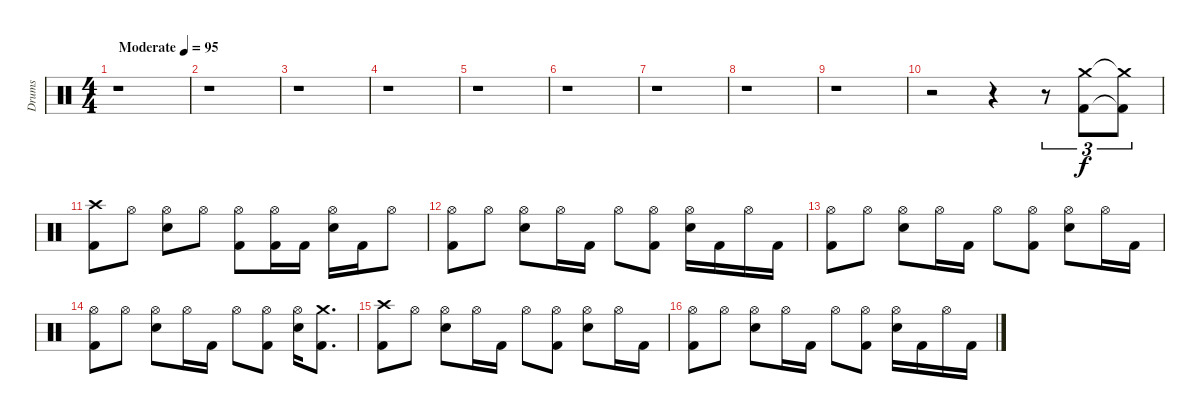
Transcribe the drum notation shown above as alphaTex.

\track ("Drums" "Drums") {instrument percussion}
\staff {score}
\articulation defaults
\ts (4 4)
\tempo (95 "Moderate")
\clef neutral
\ks c
r.1{dy f} |
r.1 |
r.1 |
r.1 |
r.1 |
r.1 |
r.1 |
r.1 |
r.1 |
r.2 r.4 r.8{tu (3 2)} ("Crash medium (hit)" "Kick (hit) 2").8{tu (3 2)} ("Crash medium (hit)"{t} "Kick (hit) 2"{t}).8{tu (3 2)} |
("Crash high (hit)" "Kick (hit) 2").8 "Hi-Hat (open)".8 ("Hi-Hat (open)" "Snare (hit) 2").8 "Hi-Hat (open)".8 ("Hi-Hat (open)" "Kick (hit) 2").8 ("Hi-Hat (open)" "Kick (hit) 2").16 "Kick (hit) 2".16 ("Hi-Hat (open)" "Snare (hit) 2").16 "Kick (hit) 2".16 "Hi-Hat (open)".8 |
("Hi-Hat (open)" "Kick (hit) 2").8 "Hi-Hat (open)".8 ("Hi-Hat (open)" "Snare (hit) 2").8 "Hi-Hat (open)".16 "Kick (hit) 2".16 "Hi-Hat (open)".8 ("Hi-Hat (open)" "Kick (hit) 2").8 ("Hi-Hat (open)" "Snare (hit) 2").16 "Kick (hit) 2".16 "Hi-Hat (open)".16 "Kick (hit) 2".16 |
("Hi-Hat (open)" "Kick (hit) 2").8 "Hi-Hat (open)".8 ("Hi-Hat (open)" "Snare (hit) 2").8 "Hi-Hat (open)".16 "Kick (hit) 2".16 "Hi-Hat (open)".8 ("Hi-Hat (open)" "Kick (hit) 2").8 ("Hi-Hat (open)" "Snare (hit) 2").8 "Hi-Hat (open)".16 "Kick (hit) 2".16 |
("Hi-Hat (open)" "Kick (hit) 2").8 "Hi-Hat (open)".8 ("Hi-Hat (open)" "Snare (hit) 2").8 "Hi-Hat (open)".16 "Kick (hit) 2".16 "Hi-Hat (open)".8 ("Hi-Hat (open)" "Kick (hit) 2").8 ("Hi-Hat (open)" "Snare (hit) 2").16 ("Crash medium (hit)" "Kick (hit) 2").8{d} |
("Crash high (hit)" "Kick (hit) 2").8 "Hi-Hat (open)".8 ("Hi-Hat (open)" "Snare (hit) 2").8 "Hi-Hat (open)".16 "Kick (hit) 2".16 "Hi-Hat (open)".8 ("Hi-Hat (open)" "Kick (hit) 2").8 ("Hi-Hat (open)" "Snare (hit) 2").8 "Hi-Hat (open)".16 "Kick (hit) 2".16 |
("Hi-Hat (open)" "Kick (hit) 2").8 "Hi-Hat (open)".8 ("Hi-Hat (open)" "Snare (hit) 2").8 "Hi-Hat (open)".16 "Kick (hit) 2".16 "Hi-Hat (open)".8 ("Hi-Hat (open)" "Kick (hit) 2").8 ("Hi-Hat (open)" "Snare (hit) 2").16 "Kick (hit) 2".16 "Hi-Hat (open)".16 "Kick (hit) 2".16
